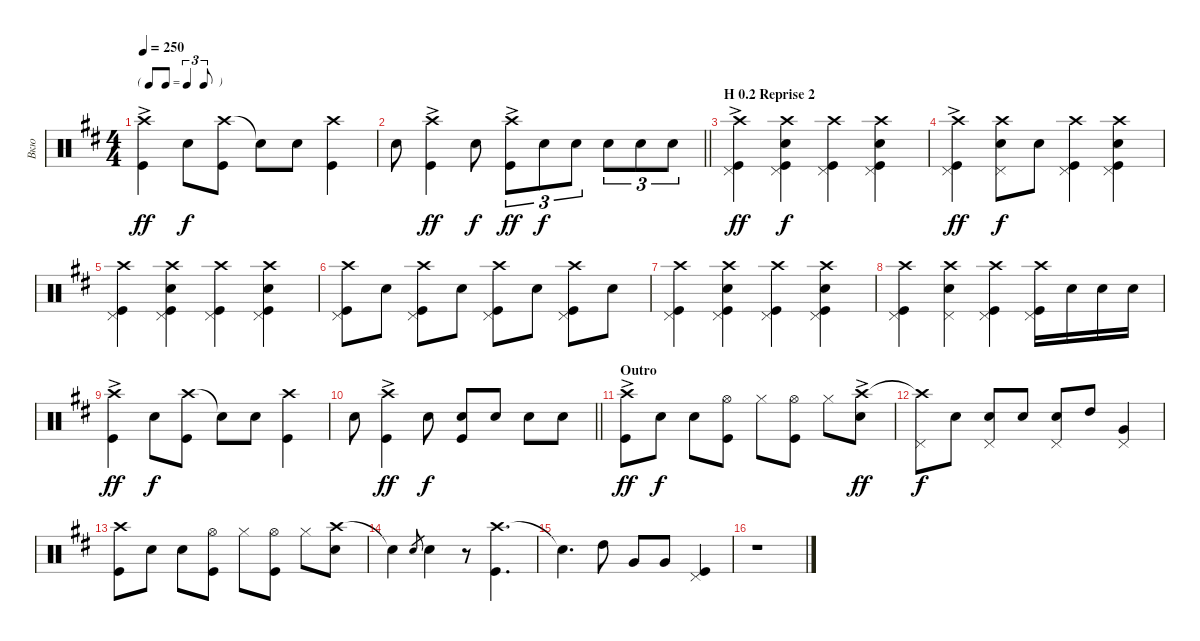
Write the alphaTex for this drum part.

\track ("Вкю" "Вкю") {instrument percussion}
\staff {score}
\articulation defaults
\ts (4 4)
\tf triplet8th
\tempo 250
\clef neutral
\ks d
("Crash high (hit)"{ac} "Kick (hit)"{ac}).4{dy ff} "Snare (hit) 2".8{dy f} ("Crash high (hit)" "Kick (hit)").8 "Snare (hit)"{t}.8 "Snare (hit) 2".8 ("Crash high (hit)" "Kick (hit)").4 |
\barLineRight lightlight "Snare (hit) 2".8
("Crash high (hit)"{ac} "Kick (hit)"{ac}).4{dy ff} "Snare (hit) 2".8{dy f} ("Crash high (hit)"{ac} "Kick (hit)"{ac}).8{tu (3 2) dy ff} "Snare (hit) 2".8{tu (3 2) dy f} "Snare (hit) 2".8{tu (3 2)} "Snare (hit) 2".8{tu (3 2)} "Snare (hit) 2".8{tu (3 2)} "Snare (hit) 2".8{tu (3 2)} |
\section ("" "H 0.2 Reprise 2")
("Crash high (hit)"{ac} "Kick (hit)"{ac} "Pedal Hi-Hat (hit)"{ac}).4{dy ff} ("Crash high (hit)" "Snare (hit) 2" "Kick (hit)" "Pedal Hi-Hat (hit)").4{dy f} ("Crash high (hit)" "Kick (hit)" "Pedal Hi-Hat (hit)").4 ("Crash high (hit)" "Snare (hit) 2" "Kick (hit)" "Pedal Hi-Hat (hit)").4 |
("Crash high (hit)"{ac} "Kick (hit)"{ac} "Pedal Hi-Hat (hit)"{ac}).4{dy ff} ("Crash high (hit)" "Snare (hit) 2" "Pedal Hi-Hat (hit)").8{dy f} "Snare (hit) 2".8 ("Crash high (hit)" "Kick (hit)" "Pedal Hi-Hat (hit)").4 ("Crash high (hit)" "Snare (hit) 2" "Kick (hit)" "Pedal Hi-Hat (hit)").4 |
("Crash high (hit)" "Kick (hit)" "Pedal Hi-Hat (hit)").4 ("Crash high (hit)" "Snare (hit) 2" "Kick (hit)" "Pedal Hi-Hat (hit)").4 ("Crash high (hit)" "Kick (hit)" "Pedal Hi-Hat (hit)").4 ("Crash high (hit)" "Snare (hit) 2" "Kick (hit)" "Pedal Hi-Hat (hit)").4 |
("Crash high (hit)" "Kick (hit)" "Pedal Hi-Hat (hit)").8 "Snare (hit) 2".8 ("Crash high (hit)" "Kick (hit)" "Pedal Hi-Hat (hit)").8 "Snare (hit) 2".8 ("Crash high (hit)" "Kick (hit)" "Pedal Hi-Hat (hit)").8 "Snare (hit) 2".8 ("Crash high (hit)" "Kick (hit)" "Pedal Hi-Hat (hit)").8 "Snare (hit) 2".8 |
("Crash high (hit)" "Kick (hit)" "Pedal Hi-Hat (hit)").4 ("Crash high (hit)" "Snare (hit) 2" "Kick (hit)" "Pedal Hi-Hat (hit)").4 ("Crash high (hit)" "Kick (hit)" "Pedal Hi-Hat (hit)").4 ("Crash high (hit)" "Snare (hit) 2" "Kick (hit)" "Pedal Hi-Hat (hit)").4 |
("Crash high (hit)" "Kick (hit)" "Pedal Hi-Hat (hit)").4 ("Crash high (hit)" "Snare (hit) 2" "Pedal Hi-Hat (hit)").4 ("Crash high (hit)" "Kick (hit)" "Pedal Hi-Hat (hit)").4 ("Crash high (hit)" "Kick (hit)" "Pedal Hi-Hat (hit)").16 "Snare (hit) 2".16 "Snare (hit) 2".16 "Snare (hit) 2".16 |
("Crash high (hit)"{ac} "Kick (hit)"{ac}).4{dy ff} "Snare (hit) 2".8{dy f} ("Crash high (hit)" "Kick (hit)").8 "Snare (hit)"{t}.8 "Snare (hit) 2".8 ("Crash high (hit)" "Kick (hit)").4 |
\barLineRight lightlight "Snare (hit) 2".8
("Crash high (hit)"{ac} "Kick (hit)"{ac}).4{dy ff} "Snare (hit) 2".8{dy f} ("Snare (hit) 2" "Kick (hit)").8 "Snare (hit) 2".8 "Snare (hit) 2".8 "Snare (hit) 2".8 |
\section ("" "Outro")
("Crash high (hit)"{ac} "Kick (hit)"{ac}).8{dy ff} "Snare (hit) 2".8{dy f} "Snare (hit) 2".8 ("Hi-Hat (open)" "Kick (hit)").8 "Hi-Hat (closed)".8 ("Hi-Hat (open)" "Kick (hit)").8 "Hi-Hat (closed)".8 ("Crash high (hit)"{ac} "Snare (hit) 2"{ac}).8{dy ff} |
("Crash high (hit)"{t} "Pedal Hi-Hat (hit)").8{dy f} "Snare (hit) 2".8 ("Snare (hit) 2" "Pedal Hi-Hat (hit)").8 "Snare (hit) 2".8 ("Snare (hit) 2" "Pedal Hi-Hat (hit)").8 "High Tom (hit)".8 ("Very Low Tom (hit)" "Pedal Hi-Hat (hit)").4 |
("Crash high (hit)" "Kick (hit)").8 "Snare (hit) 2".8 "Snare (hit) 2".8 ("Hi-Hat (open)" "Kick (hit)").8 "Hi-Hat (closed)".8 ("Hi-Hat (open)" "Kick (hit)").8 "Hi-Hat (closed)".8 ("Crash high (hit)" "Snare (hit) 2").8 |
"Snare (hit)"{t}.4 "Snare (hit) 2".8{gr} "Snare (hit) 2".4 r.8 ("Crash high (hit)" "Kick (hit)").4{d} |
"Snare (hit)"{t}.4{d} "High Tom (hit)".8 "Very Low Tom (hit)".8 "Very Low Tom (hit)".8 ("Kick (hit)" "Pedal Hi-Hat (hit)").4 |
r.1
